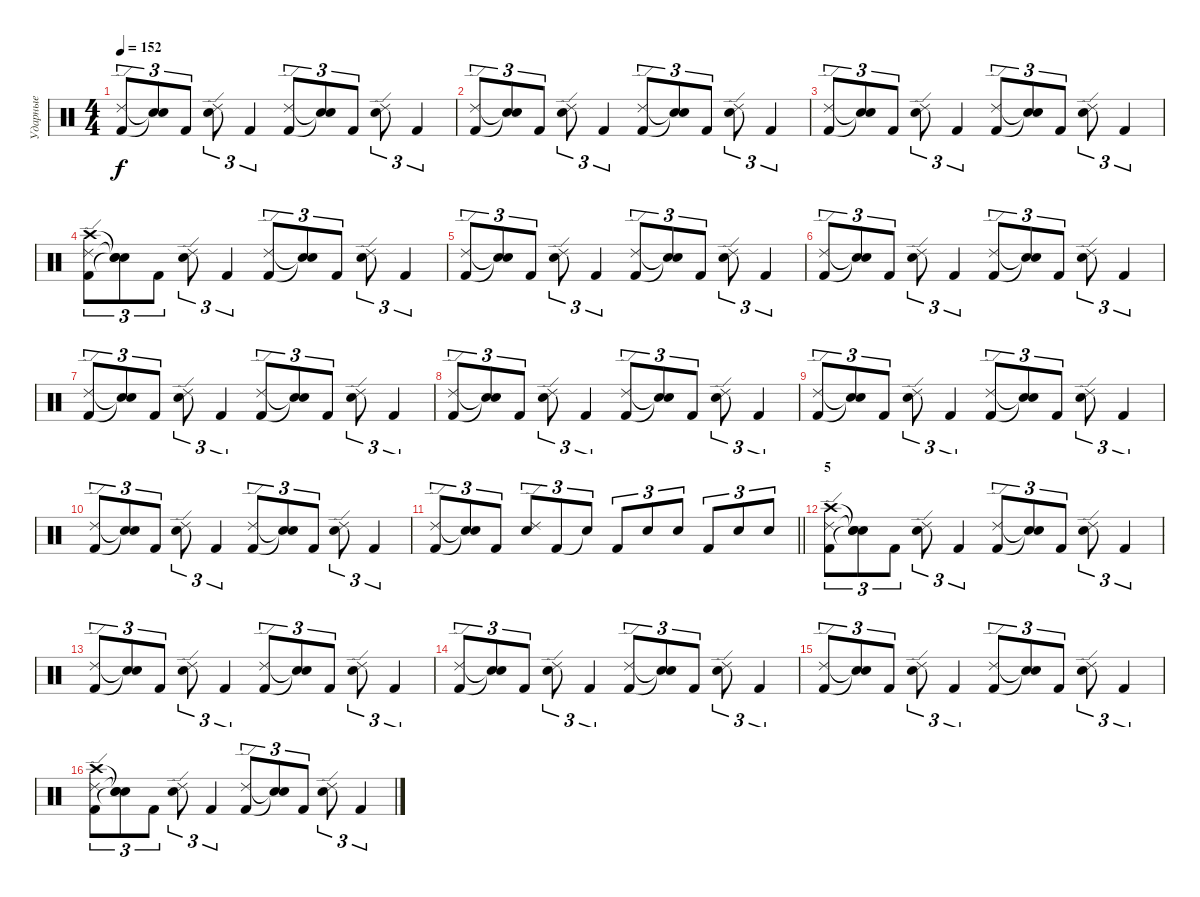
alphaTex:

\track ("Ударные" "Ударные") {instrument percussion}
\staff {score}
\articulation defaults
\ts (4 4)
\tempo 152
\clef neutral
\ks c
("Kick (hit) 2" "Ride (edge) 2").8{tu (3 2) dy f} ("Snare (hit)"{t} "Snare (hit)"{t}).8{tu (3 2)} "Kick (hit) 2".8{tu (3 2)} ("Electric Snare (hit)" "Ride (edge) 2").8{tu (3 2)} "Kick (hit) 2".4{tu (3 2)} ("Kick (hit) 2" "Ride (edge) 2").8{tu (3 2)} ("Snare (hit)"{t} "Snare (hit)"{t}).8{tu (3 2)} "Kick (hit) 2".8{tu (3 2)} ("Electric Snare (hit)" "Ride (edge) 2").8{tu (3 2)} "Kick (hit) 2".4{tu (3 2)} |
("Kick (hit) 2" "Ride (edge) 2").8{tu (3 2)} ("Snare (hit)"{t} "Snare (hit)"{t}).8{tu (3 2)} "Kick (hit) 2".8{tu (3 2)} ("Electric Snare (hit)" "Ride (edge) 2").8{tu (3 2)} "Kick (hit) 2".4{tu (3 2)} ("Kick (hit) 2" "Ride (edge) 2").8{tu (3 2)} ("Snare (hit)"{t} "Snare (hit)"{t}).8{tu (3 2)} "Kick (hit) 2".8{tu (3 2)} ("Electric Snare (hit)" "Ride (edge) 2").8{tu (3 2)} "Kick (hit) 2".4{tu (3 2)} |
("Kick (hit) 2" "Ride (edge) 2").8{tu (3 2)} ("Snare (hit)"{t} "Snare (hit)"{t}).8{tu (3 2)} "Kick (hit) 2".8{tu (3 2)} ("Electric Snare (hit)" "Ride (edge) 2").8{tu (3 2)} "Kick (hit) 2".4{tu (3 2)} ("Kick (hit) 2" "Ride (edge) 2").8{tu (3 2)} ("Snare (hit)"{t} "Snare (hit)"{t}).8{tu (3 2)} "Kick (hit) 2".8{tu (3 2)} ("Electric Snare (hit)" "Ride (edge) 2").8{tu (3 2)} "Kick (hit) 2".4{tu (3 2)} |
("Kick (hit) 2" "Crash high (hit)" "Ride (edge) 2").8{tu (3 2)} ("Snare (hit)"{t} "Snare (hit)"{t} "Snare (hit)"{t}).8{tu (3 2)} "Kick (hit) 2".8{tu (3 2)} ("Electric Snare (hit)" "Ride (edge) 2").8{tu (3 2)} "Kick (hit) 2".4{tu (3 2)} ("Kick (hit) 2" "Ride (edge) 2").8{tu (3 2)} ("Snare (hit)"{t} "Snare (hit)"{t}).8{tu (3 2)} "Kick (hit) 2".8{tu (3 2)} ("Electric Snare (hit)" "Ride (edge) 2").8{tu (3 2)} "Kick (hit) 2".4{tu (3 2)} |
("Kick (hit) 2" "Ride (edge) 2").8{tu (3 2)} ("Snare (hit)"{t} "Snare (hit)"{t}).8{tu (3 2)} "Kick (hit) 2".8{tu (3 2)} ("Electric Snare (hit)" "Ride (edge) 2").8{tu (3 2)} "Kick (hit) 2".4{tu (3 2)} ("Kick (hit) 2" "Ride (edge) 2").8{tu (3 2)} ("Snare (hit)"{t} "Snare (hit)"{t}).8{tu (3 2)} "Kick (hit) 2".8{tu (3 2)} ("Electric Snare (hit)" "Ride (edge) 2").8{tu (3 2)} "Kick (hit) 2".4{tu (3 2)} |
("Kick (hit) 2" "Ride (edge) 2").8{tu (3 2)} ("Snare (hit)"{t} "Snare (hit)"{t}).8{tu (3 2)} "Kick (hit) 2".8{tu (3 2)} ("Electric Snare (hit)" "Ride (edge) 2").8{tu (3 2)} "Kick (hit) 2".4{tu (3 2)} ("Kick (hit) 2" "Ride (edge) 2").8{tu (3 2)} ("Snare (hit)"{t} "Snare (hit)"{t}).8{tu (3 2)} "Kick (hit) 2".8{tu (3 2)} ("Electric Snare (hit)" "Ride (edge) 2").8{tu (3 2)} "Kick (hit) 2".4{tu (3 2)} |
("Kick (hit) 2" "Ride (edge) 2").8{tu (3 2)} ("Snare (hit)"{t} "Snare (hit)"{t}).8{tu (3 2)} "Kick (hit) 2".8{tu (3 2)} ("Electric Snare (hit)" "Ride (edge) 2").8{tu (3 2)} "Kick (hit) 2".4{tu (3 2)} ("Kick (hit) 2" "Ride (edge) 2").8{tu (3 2)} ("Snare (hit)"{t} "Snare (hit)"{t}).8{tu (3 2)} "Kick (hit) 2".8{tu (3 2)} ("Electric Snare (hit)" "Ride (edge) 2").8{tu (3 2)} "Kick (hit) 2".4{tu (3 2)} |
("Kick (hit) 2" "Ride (edge) 2").8{tu (3 2)} ("Snare (hit)"{t} "Snare (hit)"{t}).8{tu (3 2)} "Kick (hit) 2".8{tu (3 2)} ("Electric Snare (hit)" "Ride (edge) 2").8{tu (3 2)} "Kick (hit) 2".4{tu (3 2)} ("Kick (hit) 2" "Ride (edge) 2").8{tu (3 2)} ("Snare (hit)"{t} "Snare (hit)"{t}).8{tu (3 2)} "Kick (hit) 2".8{tu (3 2)} ("Electric Snare (hit)" "Ride (edge) 2").8{tu (3 2)} "Kick (hit) 2".4{tu (3 2)} |
("Kick (hit) 2" "Ride (edge) 2").8{tu (3 2)} ("Snare (hit)"{t} "Snare (hit)"{t}).8{tu (3 2)} "Kick (hit) 2".8{tu (3 2)} ("Electric Snare (hit)" "Ride (edge) 2").8{tu (3 2)} "Kick (hit) 2".4{tu (3 2)} ("Kick (hit) 2" "Ride (edge) 2").8{tu (3 2)} ("Snare (hit)"{t} "Snare (hit)"{t}).8{tu (3 2)} "Kick (hit) 2".8{tu (3 2)} ("Electric Snare (hit)" "Ride (edge) 2").8{tu (3 2)} "Kick (hit) 2".4{tu (3 2)} |
("Kick (hit) 2" "Ride (edge) 2").8{tu (3 2)} ("Snare (hit)"{t} "Snare (hit)"{t}).8{tu (3 2)} "Kick (hit) 2".8{tu (3 2)} ("Electric Snare (hit)" "Ride (edge) 2").8{tu (3 2)} "Kick (hit) 2".4{tu (3 2)} ("Kick (hit) 2" "Ride (edge) 2").8{tu (3 2)} ("Snare (hit)"{t} "Snare (hit)"{t}).8{tu (3 2)} "Kick (hit) 2".8{tu (3 2)} ("Electric Snare (hit)" "Ride (edge) 2").8{tu (3 2)} "Kick (hit) 2".4{tu (3 2)} |
\barLineRight lightlight
("Kick (hit) 2" "Ride (edge) 2").8{tu (3 2)} ("Snare (hit)"{t} "Snare (hit)"{t}).8{tu (3 2)} "Kick (hit) 2".8{tu (3 2)} ("Electric Snare (hit)" "Ride (edge) 2").8{tu (3 2)} "Kick (hit) 2".8{tu (3 2)} "Snare (hit)"{t}.8{tu (3 2)} "Kick (hit) 2".8{tu (3 2)} "Electric Snare (hit)".8{tu (3 2)} "Electric Snare (hit)".8{tu (3 2)} "Kick (hit) 2".8{tu (3 2)} "Electric Snare (hit)".8{tu (3 2)} "Electric Snare (hit)".8{tu (3 2)} |
\section ("" "5")
("Kick (hit) 2" "Crash high (hit)" "Ride (edge) 2").8{tu (3 2)} ("Snare (hit)"{t} "Snare (hit)"{t} "Snare (hit)"{t}).8{tu (3 2)} "Kick (hit) 2".8{tu (3 2)} ("Electric Snare (hit)" "Ride (edge) 2").8{tu (3 2)} "Kick (hit) 2".4{tu (3 2)} ("Kick (hit) 2" "Ride (edge) 2").8{tu (3 2)} ("Snare (hit)"{t} "Snare (hit)"{t}).8{tu (3 2)} "Kick (hit) 2".8{tu (3 2)} ("Electric Snare (hit)" "Ride (edge) 2").8{tu (3 2)} "Kick (hit) 2".4{tu (3 2)} |
("Kick (hit) 2" "Ride (edge) 2").8{tu (3 2)} ("Snare (hit)"{t} "Snare (hit)"{t}).8{tu (3 2)} "Kick (hit) 2".8{tu (3 2)} ("Electric Snare (hit)" "Ride (edge) 2").8{tu (3 2)} "Kick (hit) 2".4{tu (3 2)} ("Kick (hit) 2" "Ride (edge) 2").8{tu (3 2)} ("Snare (hit)"{t} "Snare (hit)"{t}).8{tu (3 2)} "Kick (hit) 2".8{tu (3 2)} ("Electric Snare (hit)" "Ride (edge) 2").8{tu (3 2)} "Kick (hit) 2".4{tu (3 2)} |
("Kick (hit) 2" "Ride (edge) 2").8{tu (3 2)} ("Snare (hit)"{t} "Snare (hit)"{t}).8{tu (3 2)} "Kick (hit) 2".8{tu (3 2)} ("Electric Snare (hit)" "Ride (edge) 2").8{tu (3 2)} "Kick (hit) 2".4{tu (3 2)} ("Kick (hit) 2" "Ride (edge) 2").8{tu (3 2)} ("Snare (hit)"{t} "Snare (hit)"{t}).8{tu (3 2)} "Kick (hit) 2".8{tu (3 2)} ("Electric Snare (hit)" "Ride (edge) 2").8{tu (3 2)} "Kick (hit) 2".4{tu (3 2)} |
("Kick (hit) 2" "Ride (edge) 2").8{tu (3 2)} ("Snare (hit)"{t} "Snare (hit)"{t}).8{tu (3 2)} "Kick (hit) 2".8{tu (3 2)} ("Electric Snare (hit)" "Ride (edge) 2").8{tu (3 2)} "Kick (hit) 2".4{tu (3 2)} ("Kick (hit) 2" "Ride (edge) 2").8{tu (3 2)} ("Snare (hit)"{t} "Snare (hit)"{t}).8{tu (3 2)} "Kick (hit) 2".8{tu (3 2)} ("Electric Snare (hit)" "Ride (edge) 2").8{tu (3 2)} "Kick (hit) 2".4{tu (3 2)} |
("Kick (hit) 2" "Crash high (hit)" "Ride (edge) 2").8{tu (3 2)} ("Snare (hit)"{t} "Snare (hit)"{t} "Snare (hit)"{t}).8{tu (3 2)} "Kick (hit) 2".8{tu (3 2)} ("Electric Snare (hit)" "Ride (edge) 2").8{tu (3 2)} "Kick (hit) 2".4{tu (3 2)} ("Kick (hit) 2" "Ride (edge) 2").8{tu (3 2)} ("Snare (hit)"{t} "Snare (hit)"{t}).8{tu (3 2)} "Kick (hit) 2".8{tu (3 2)} ("Electric Snare (hit)" "Ride (edge) 2").8{tu (3 2)} "Kick (hit) 2".4{tu (3 2)}
